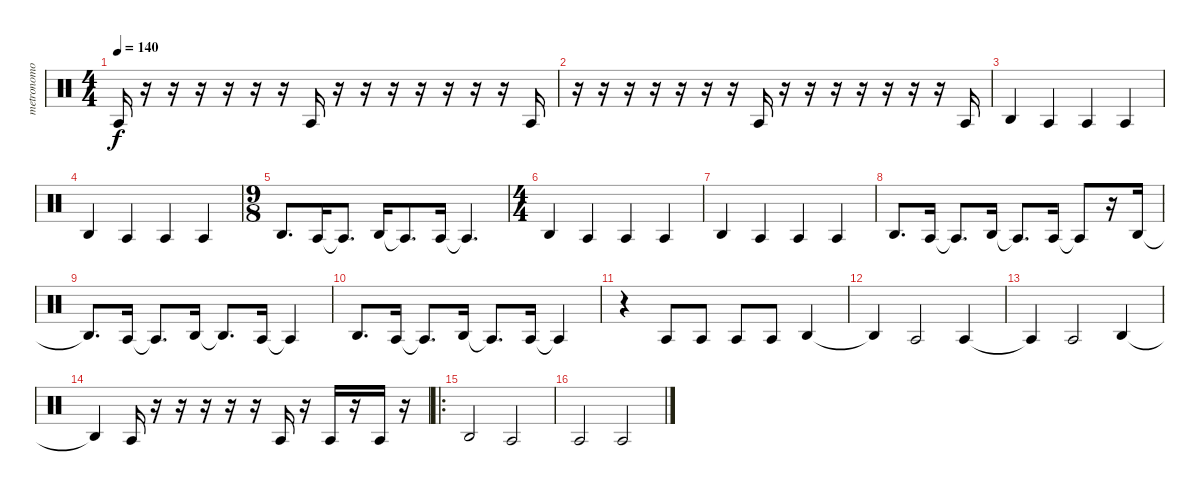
\track ("metronomo" "metronomo") {instrument percussion}
\staff {score}
\articulation defaults
\ts (4 4)
\tempo 140
\clef neutral
\ks c "Agogo tow (hit)".16{dy f}
r.16 r.16 r.16 r.16 r.16 r.16 "Agogo tow (hit)".16 r.16 r.16 r.16 r.16 r.16 r.16 r.16 "Agogo tow (hit)".16 |
r.16 r.16 r.16 r.16 r.16 r.16 r.16 "Agogo tow (hit)".16 r.16 r.16 r.16 r.16 r.16 r.16 r.16 "Agogo tow (hit)".16 |
"Agogo high (hit)".4 "Agogo tow (hit)".4 "Agogo tow (hit)".4 "Agogo tow (hit)".4 |
"Agogo high (hit)".4 "Agogo tow (hit)".4 "Agogo tow (hit)".4 "Agogo tow (hit)".4 |
\ts (9 8)
"Agogo high (hit)".8{d} "Agogo tow (hit)".16 "Agogo tow (hit)"{t}.8{d} "Agogo high (hit)".16 "Agogo tow (hit)"{t}.8{d} "Agogo tow (hit)".16 "Agogo tow (hit)"{t}.4{d} |
\ts (4 4)
"Agogo high (hit)".4 "Agogo tow (hit)".4 "Agogo tow (hit)".4 "Agogo tow (hit)".4 |
"Agogo high (hit)".4 "Agogo tow (hit)".4 "Agogo tow (hit)".4 "Agogo tow (hit)".4 |
"Agogo high (hit)".8{d} "Agogo tow (hit)".16 "Agogo tow (hit)"{t}.8{d} "Agogo high (hit)".16 "Agogo tow (hit)"{t}.8{d} "Agogo tow (hit)".16 "Agogo tow (hit)"{t}.8 r.16 "Agogo high (hit)".16 |
"Agogo high (hit)"{t}.8{d} "Agogo tow (hit)".16 "Agogo tow (hit)"{t}.8{d} "Agogo high (hit)".16 "Agogo high (hit)"{t}.8{d} "Agogo tow (hit)".16 "Agogo tow (hit)"{t}.4 |
"Agogo high (hit)".8{d} "Agogo tow (hit)".16 "Agogo tow (hit)"{t}.8{d} "Agogo high (hit)".16 "Agogo tow (hit)"{t}.8{d} "Agogo tow (hit)".16 "Agogo tow (hit)"{t}.4 |
r.4 "Agogo tow (hit)".8 "Agogo tow (hit)".8 "Agogo tow (hit)".8 "Agogo tow (hit)".8 "Agogo high (hit)".4 |
"Agogo high (hit)"{t}.4 "Agogo tow (hit)".2 "Agogo tow (hit)".4 |
"Agogo tow (hit)"{t}.4 "Agogo tow (hit)".2 "Agogo high (hit)".4 |
"Agogo high (hit)"{t}.4 "Agogo tow (hit)".16 r.16 r.16 r.16 r.16 r.16 "Agogo tow (hit)".16 r.16 "Agogo tow (hit)".16 r.16 "Agogo tow (hit)".16 r.16 |
\ro "Agogo high (hit)".2 "Agogo tow (hit)".2
|
"Agogo tow (hit)".2 "Agogo tow (hit)".2
